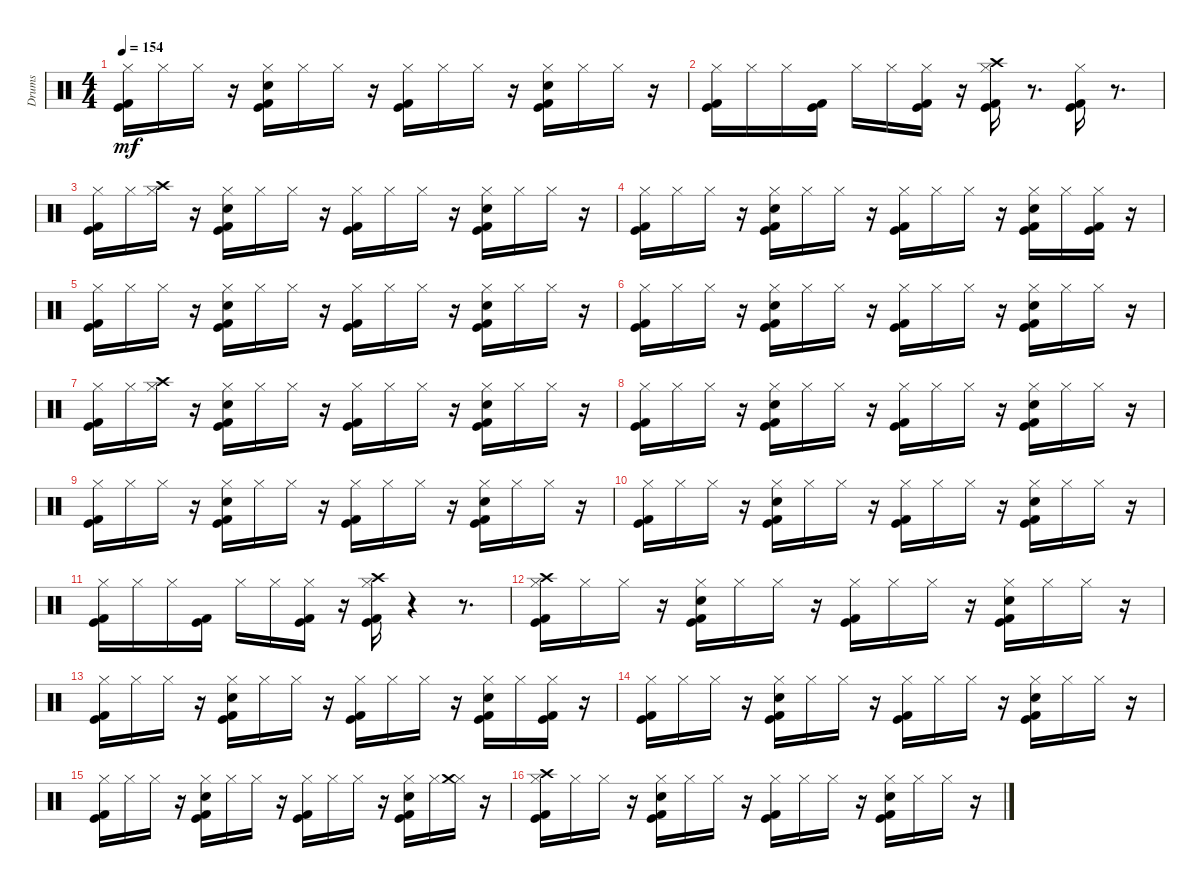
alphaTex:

\track ("Drums" "Drums") {instrument percussion}
\staff {score}
\articulation defaults
\ts (4 4)
\tempo 154
\clef neutral
\ks c
("Kick (hit)" "Kick (hit) 2" "Hi-Hat (closed)").16{dy mf} "Hi-Hat (closed)".16 "Hi-Hat (closed)".16 r.16 ("Kick (hit)" "Kick (hit) 2" "Electric Snare (hit)" "Hi-Hat (closed)").16 "Hi-Hat (closed)".16 "Hi-Hat (closed)".16 r.16 ("Kick (hit)" "Kick (hit) 2" "Hi-Hat (closed)").16 "Hi-Hat (closed)".16 "Hi-Hat (closed)".16 r.16 ("Kick (hit)" "Kick (hit) 2" "Electric Snare (hit)" "Hi-Hat (closed)").16 "Hi-Hat (closed)".16 "Hi-Hat (closed)".16 r.16 |
("Kick (hit)" "Kick (hit) 2" "Hi-Hat (closed)").16 "Hi-Hat (closed)".16 "Hi-Hat (closed)".16 ("Kick (hit)" "Kick (hit) 2").16 "Hi-Hat (closed)".16 "Hi-Hat (closed)".16 ("Kick (hit)" "Kick (hit) 2" "Hi-Hat (closed)").16 r.16 ("Kick (hit)" "Kick (hit) 2" "Hi-Hat (closed)" "Crash high (hit)").16 r.8{d} ("Kick (hit)" "Kick (hit) 2" "Hi-Hat (closed)").16 r.8{d} |
("Kick (hit)" "Kick (hit) 2" "Hi-Hat (closed)").16 "Hi-Hat (closed)".16 ("Hi-Hat (closed)" "Crash high (hit)").16 r.16 ("Kick (hit)" "Kick (hit) 2" "Electric Snare (hit)" "Hi-Hat (closed)").16 "Hi-Hat (closed)".16 "Hi-Hat (closed)".16 r.16 ("Kick (hit)" "Kick (hit) 2" "Hi-Hat (closed)").16 "Hi-Hat (closed)".16 "Hi-Hat (closed)".16 r.16 ("Kick (hit)" "Kick (hit) 2" "Electric Snare (hit)" "Hi-Hat (closed)").16 "Hi-Hat (closed)".16 "Hi-Hat (closed)".16 r.16 |
("Kick (hit)" "Kick (hit) 2" "Hi-Hat (closed)").16 "Hi-Hat (closed)".16 "Hi-Hat (closed)".16 r.16 ("Kick (hit)" "Kick (hit) 2" "Electric Snare (hit)" "Hi-Hat (closed)").16 "Hi-Hat (closed)".16 "Hi-Hat (closed)".16 r.16 ("Kick (hit)" "Kick (hit) 2" "Hi-Hat (closed)").16 "Hi-Hat (closed)".16 "Hi-Hat (closed)".16 r.16 ("Kick (hit)" "Kick (hit) 2" "Electric Snare (hit)" "Hi-Hat (closed)").16 "Hi-Hat (closed)".16 ("Kick (hit)" "Kick (hit) 2" "Hi-Hat (closed)").16 r.16 |
("Kick (hit)" "Kick (hit) 2" "Hi-Hat (closed)").16 "Hi-Hat (closed)".16 "Hi-Hat (closed)".16 r.16 ("Kick (hit)" "Kick (hit) 2" "Electric Snare (hit)" "Hi-Hat (closed)").16 "Hi-Hat (closed)".16 "Hi-Hat (closed)".16 r.16 ("Kick (hit)" "Kick (hit) 2" "Hi-Hat (closed)").16 "Hi-Hat (closed)".16 "Hi-Hat (closed)".16 r.16 ("Kick (hit)" "Kick (hit) 2" "Electric Snare (hit)" "Hi-Hat (closed)").16 "Hi-Hat (closed)".16 "Hi-Hat (closed)".16 r.16 |
("Kick (hit)" "Kick (hit) 2" "Hi-Hat (closed)").16 "Hi-Hat (closed)".16 "Hi-Hat (closed)".16 r.16 ("Kick (hit)" "Kick (hit) 2" "Electric Snare (hit)" "Hi-Hat (closed)").16 "Hi-Hat (closed)".16 "Hi-Hat (closed)".16 r.16 ("Kick (hit)" "Kick (hit) 2" "Hi-Hat (closed)").16 "Hi-Hat (closed)".16 "Hi-Hat (closed)".16 r.16 ("Kick (hit)" "Kick (hit) 2" "Electric Snare (hit)" "Hi-Hat (closed)").16 "Hi-Hat (closed)".16 "Hi-Hat (closed)".16 r.16 |
("Kick (hit)" "Kick (hit) 2" "Hi-Hat (closed)").16 "Hi-Hat (closed)".16 ("Hi-Hat (closed)" "Crash high (hit)").16 r.16 ("Kick (hit)" "Kick (hit) 2" "Electric Snare (hit)" "Hi-Hat (closed)").16 "Hi-Hat (closed)".16 "Hi-Hat (closed)".16 r.16 ("Kick (hit)" "Kick (hit) 2" "Hi-Hat (closed)").16 "Hi-Hat (closed)".16 "Hi-Hat (closed)".16 r.16 ("Kick (hit)" "Kick (hit) 2" "Electric Snare (hit)" "Hi-Hat (closed)").16 "Hi-Hat (closed)".16 "Hi-Hat (closed)".16 r.16 |
("Kick (hit)" "Kick (hit) 2" "Hi-Hat (closed)").16 "Hi-Hat (closed)".16 "Hi-Hat (closed)".16 r.16 ("Kick (hit)" "Kick (hit) 2" "Electric Snare (hit)" "Hi-Hat (closed)").16 "Hi-Hat (closed)".16 "Hi-Hat (closed)".16 r.16 ("Kick (hit)" "Kick (hit) 2" "Hi-Hat (closed)").16 "Hi-Hat (closed)".16 "Hi-Hat (closed)".16 r.16 ("Kick (hit)" "Kick (hit) 2" "Electric Snare (hit)" "Hi-Hat (closed)").16 "Hi-Hat (closed)".16 "Hi-Hat (closed)".16 r.16 |
("Kick (hit)" "Kick (hit) 2" "Hi-Hat (closed)").16 "Hi-Hat (closed)".16 "Hi-Hat (closed)".16 r.16 ("Kick (hit)" "Kick (hit) 2" "Electric Snare (hit)" "Hi-Hat (closed)").16 "Hi-Hat (closed)".16 "Hi-Hat (closed)".16 r.16 ("Kick (hit)" "Kick (hit) 2" "Hi-Hat (closed)").16 "Hi-Hat (closed)".16 "Hi-Hat (closed)".16 r.16 ("Kick (hit)" "Kick (hit) 2" "Electric Snare (hit)" "Hi-Hat (closed)").16 "Hi-Hat (closed)".16 "Hi-Hat (closed)".16 r.16 |
("Kick (hit)" "Kick (hit) 2" "Hi-Hat (closed)").16 "Hi-Hat (closed)".16 "Hi-Hat (closed)".16 r.16 ("Kick (hit)" "Kick (hit) 2" "Electric Snare (hit)" "Hi-Hat (closed)").16 "Hi-Hat (closed)".16 "Hi-Hat (closed)".16 r.16 ("Kick (hit)" "Kick (hit) 2" "Hi-Hat (closed)").16 "Hi-Hat (closed)".16 "Hi-Hat (closed)".16 r.16 ("Kick (hit)" "Kick (hit) 2" "Electric Snare (hit)" "Hi-Hat (closed)").16 "Hi-Hat (closed)".16 "Hi-Hat (closed)".16 r.16 |
("Kick (hit)" "Kick (hit) 2" "Hi-Hat (closed)").16 "Hi-Hat (closed)".16 "Hi-Hat (closed)".16 ("Kick (hit)" "Kick (hit) 2").16 "Hi-Hat (closed)".16 "Hi-Hat (closed)".16 ("Kick (hit)" "Kick (hit) 2" "Hi-Hat (closed)").16 r.16 ("Kick (hit)" "Kick (hit) 2" "Hi-Hat (closed)" "Crash high (hit)").16 r.4 r.8{d} |
("Kick (hit)" "Kick (hit) 2" "Hi-Hat (closed)" "Crash high (hit)").16 "Hi-Hat (closed)".16 "Hi-Hat (closed)".16 r.16 ("Kick (hit)" "Kick (hit) 2" "Electric Snare (hit)" "Hi-Hat (closed)").16 "Hi-Hat (closed)".16 "Hi-Hat (closed)".16 r.16 ("Kick (hit)" "Kick (hit) 2" "Hi-Hat (closed)").16 "Hi-Hat (closed)".16 "Hi-Hat (closed)".16 r.16 ("Kick (hit)" "Kick (hit) 2" "Electric Snare (hit)" "Hi-Hat (closed)").16 "Hi-Hat (closed)".16 "Hi-Hat (closed)".16 r.16 |
("Kick (hit)" "Kick (hit) 2" "Hi-Hat (closed)").16 "Hi-Hat (closed)".16 "Hi-Hat (closed)".16 r.16 ("Kick (hit)" "Kick (hit) 2" "Electric Snare (hit)" "Hi-Hat (closed)").16 "Hi-Hat (closed)".16 "Hi-Hat (closed)".16 r.16 ("Kick (hit)" "Kick (hit) 2" "Hi-Hat (closed)").16 "Hi-Hat (closed)".16 "Hi-Hat (closed)".16 r.16 ("Kick (hit)" "Kick (hit) 2" "Electric Snare (hit)" "Hi-Hat (closed)").16 "Hi-Hat (closed)".16 ("Kick (hit)" "Kick (hit) 2" "Hi-Hat (closed)").16 r.16 |
("Kick (hit)" "Kick (hit) 2" "Hi-Hat (closed)").16 "Hi-Hat (closed)".16 "Hi-Hat (closed)".16 r.16 ("Kick (hit)" "Kick (hit) 2" "Electric Snare (hit)" "Hi-Hat (closed)").16 "Hi-Hat (closed)".16 "Hi-Hat (closed)".16 r.16 ("Kick (hit)" "Kick (hit) 2" "Hi-Hat (closed)").16 "Hi-Hat (closed)".16 "Hi-Hat (closed)".16 r.16 ("Kick (hit)" "Kick (hit) 2" "Electric Snare (hit)" "Hi-Hat (closed)").16 "Hi-Hat (closed)".16 "Hi-Hat (closed)".16 r.16 |
("Kick (hit)" "Kick (hit) 2" "Hi-Hat (closed)").16 "Hi-Hat (closed)".16 "Hi-Hat (closed)".16 r.16 ("Kick (hit)" "Kick (hit) 2" "Electric Snare (hit)" "Hi-Hat (closed)").16 "Hi-Hat (closed)".16 "Hi-Hat (closed)".16 r.16 ("Kick (hit)" "Kick (hit) 2" "Hi-Hat (closed)").16 "Hi-Hat (closed)".16 "Hi-Hat (closed)".16 r.16 ("Kick (hit)" "Kick (hit) 2" "Electric Snare (hit)" "Hi-Hat (closed)").16 "Hi-Hat (closed)".16 ("Hi-Hat (closed)" "Crash medium (hit)").16 r.16 |
("Kick (hit)" "Kick (hit) 2" "Hi-Hat (closed)" "Crash high (hit)").16 "Hi-Hat (closed)".16 "Hi-Hat (closed)".16 r.16 ("Kick (hit)" "Kick (hit) 2" "Electric Snare (hit)" "Hi-Hat (closed)").16 "Hi-Hat (closed)".16 "Hi-Hat (closed)".16 r.16 ("Kick (hit)" "Kick (hit) 2" "Hi-Hat (closed)").16 "Hi-Hat (closed)".16 "Hi-Hat (closed)".16 r.16 ("Kick (hit)" "Kick (hit) 2" "Electric Snare (hit)" "Hi-Hat (closed)").16 "Hi-Hat (closed)".16 "Hi-Hat (closed)".16 r.16
